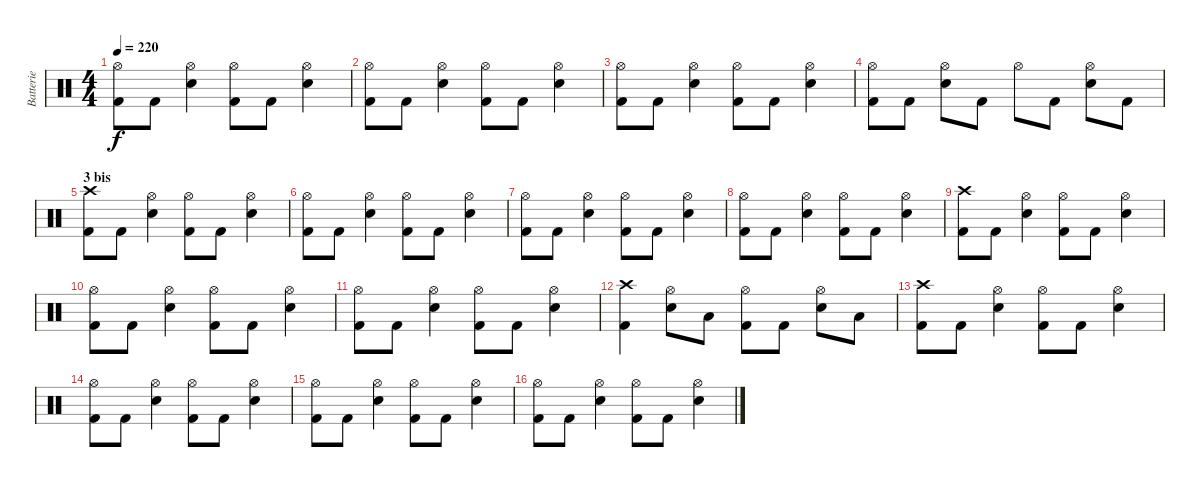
\track ("Batterie" "Batterie") {instrument percussion}
\staff {score}
\articulation defaults
\ts (4 4)
\tempo 220
\clef neutral
\ks c
("Hi-Hat (open)" "Kick (hit) 2").8{dy f} "Kick (hit) 2".8 ("Hi-Hat (open)" "Electric Snare (hit)").4 ("Hi-Hat (open)" "Kick (hit) 2").8 "Kick (hit) 2".8 ("Hi-Hat (open)" "Electric Snare (hit)").4 |
("Hi-Hat (open)" "Kick (hit) 2").8 "Kick (hit) 2".8 ("Hi-Hat (open)" "Electric Snare (hit)").4 ("Hi-Hat (open)" "Kick (hit) 2").8 "Kick (hit) 2".8 ("Hi-Hat (open)" "Electric Snare (hit)").4 |
("Hi-Hat (open)" "Kick (hit) 2").8 "Kick (hit) 2".8 ("Hi-Hat (open)" "Electric Snare (hit)").4 ("Hi-Hat (open)" "Kick (hit) 2").8 "Kick (hit) 2".8 ("Hi-Hat (open)" "Electric Snare (hit)").4 |
("Hi-Hat (open)" "Kick (hit) 2").8 "Kick (hit) 2".8 ("Hi-Hat (open)" "Electric Snare (hit)").8 "Kick (hit) 2".8 "Hi-Hat (open)".8 "Kick (hit) 2".8 ("Hi-Hat (open)" "Electric Snare (hit)").8 "Kick (hit) 2".8 |
\section ("" "3 bis")
("Crash high (hit)" "Kick (hit) 2").8 "Kick (hit) 2".8 ("Hi-Hat (open)" "Electric Snare (hit)").4 ("Hi-Hat (open)" "Kick (hit) 2").8 "Kick (hit) 2".8 ("Hi-Hat (open)" "Electric Snare (hit)").4 |
("Hi-Hat (open)" "Kick (hit) 2").8 "Kick (hit) 2".8 ("Hi-Hat (open)" "Electric Snare (hit)").4 ("Hi-Hat (open)" "Kick (hit) 2").8 "Kick (hit) 2".8 ("Hi-Hat (open)" "Electric Snare (hit)").4 |
("Hi-Hat (open)" "Kick (hit) 2").8 "Kick (hit) 2".8 ("Hi-Hat (open)" "Electric Snare (hit)").4 ("Hi-Hat (open)" "Kick (hit) 2").8 "Kick (hit) 2".8 ("Hi-Hat (open)" "Electric Snare (hit)").4 |
("Hi-Hat (open)" "Kick (hit) 2").8 "Kick (hit) 2".8 ("Hi-Hat (open)" "Electric Snare (hit)").4 ("Hi-Hat (open)" "Kick (hit) 2").8 "Kick (hit) 2".8 ("Hi-Hat (open)" "Electric Snare (hit)").4 |
("Crash high (hit)" "Kick (hit) 2").8 "Kick (hit) 2".8 ("Hi-Hat (open)" "Electric Snare (hit)").4 ("Hi-Hat (open)" "Kick (hit) 2").8 "Kick (hit) 2".8 ("Hi-Hat (open)" "Electric Snare (hit)").4 |
("Hi-Hat (open)" "Kick (hit) 2").8 "Kick (hit) 2".8 ("Hi-Hat (open)" "Electric Snare (hit)").4 ("Hi-Hat (open)" "Kick (hit) 2").8 "Kick (hit) 2".8 ("Hi-Hat (open)" "Electric Snare (hit)").4 |
("Hi-Hat (open)" "Kick (hit) 2").8 "Kick (hit) 2".8 ("Hi-Hat (open)" "Electric Snare (hit)").4 ("Hi-Hat (open)" "Kick (hit) 2").8 "Kick (hit) 2".8 ("Hi-Hat (open)" "Electric Snare (hit)").4 |
("Crash high (hit)" "Kick (hit) 2").4 ("Hi-Hat (open)" "Electric Snare (hit)").8 "Low Tom (hit)".8 ("Hi-Hat (open)" "Kick (hit) 2").8 "Kick (hit) 2".8 ("Hi-Hat (open)" "Electric Snare (hit)").8 "Low Tom (hit)".8 |
("Crash high (hit)" "Kick (hit) 2").8 "Kick (hit) 2".8 ("Hi-Hat (open)" "Electric Snare (hit)").4 ("Hi-Hat (open)" "Kick (hit) 2").8 "Kick (hit) 2".8 ("Hi-Hat (open)" "Electric Snare (hit)").4 |
("Hi-Hat (open)" "Kick (hit) 2").8 "Kick (hit) 2".8 ("Hi-Hat (open)" "Electric Snare (hit)").4 ("Hi-Hat (open)" "Kick (hit) 2").8 "Kick (hit) 2".8 ("Hi-Hat (open)" "Electric Snare (hit)").4 |
("Hi-Hat (open)" "Kick (hit) 2").8 "Kick (hit) 2".8 ("Hi-Hat (open)" "Electric Snare (hit)").4 ("Hi-Hat (open)" "Kick (hit) 2").8 "Kick (hit) 2".8 ("Hi-Hat (open)" "Electric Snare (hit)").4 |
("Hi-Hat (open)" "Kick (hit) 2").8 "Kick (hit) 2".8 ("Hi-Hat (open)" "Electric Snare (hit)").4 ("Hi-Hat (open)" "Kick (hit) 2").8 "Kick (hit) 2".8 ("Hi-Hat (open)" "Electric Snare (hit)").4
